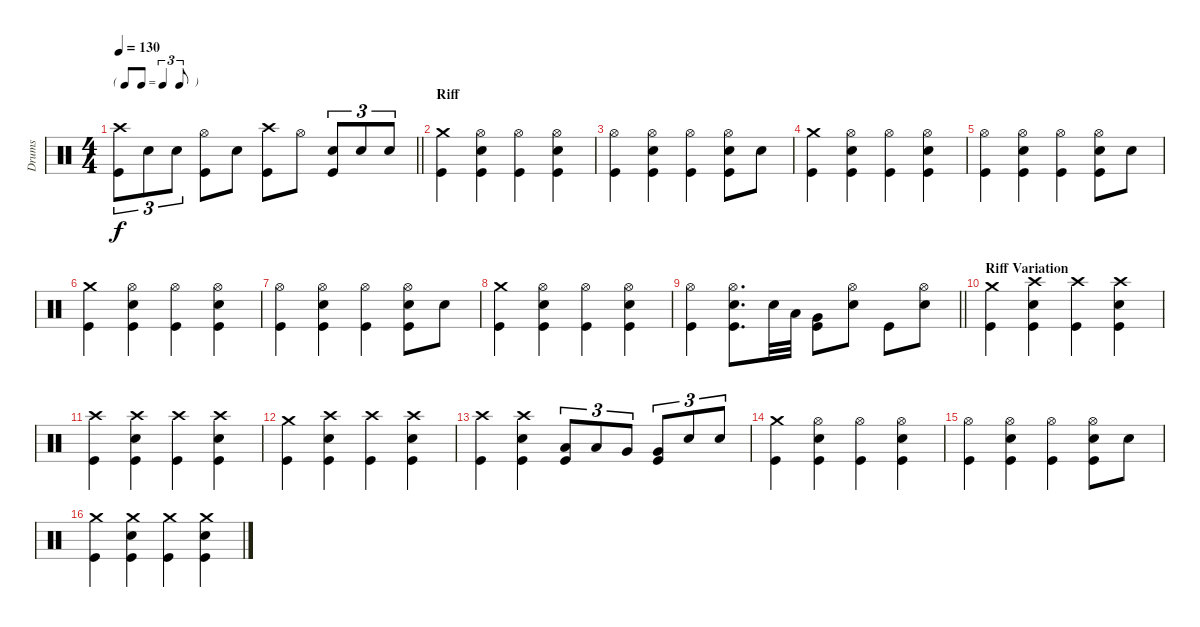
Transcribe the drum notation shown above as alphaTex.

\track ("Drums" "Drums") {instrument percussion}
\staff {score}
\articulation defaults
\ts (4 4)
\tf triplet8th
\tempo 130
\clef neutral
\barLineRight lightlight
\ks c
("Crash high (hit)" "Kick (hit)").8{tu (3 2) dy f} "Snare (hit) 2".8{tu (3 2)} "Snare (hit) 2".8{tu (3 2)} ("Kick (hit)" "Hi-Hat (open)").8 "Snare (hit) 2".8 ("Crash high (hit)" "Kick (hit)").8 "Hi-Hat (open)".8 ("Kick (hit)" "Snare (hit) 2").8{tu (3 2)} "Snare (hit) 2".8{tu (3 2)} "Snare (hit) 2".8{tu (3 2)} |
\section ("" "Riff")
("Crash medium (hit)" "Kick (hit)").4 ("Hi-Hat (open)" "Snare (hit) 2" "Kick (hit)").4 ("Hi-Hat (open)" "Kick (hit)").4 ("Hi-Hat (open)" "Snare (hit) 2" "Kick (hit)").4 |
("Hi-Hat (open)" "Kick (hit)").4 ("Hi-Hat (open)" "Snare (hit) 2" "Kick (hit)").4 ("Hi-Hat (open)" "Kick (hit)").4 ("Hi-Hat (open)" "Snare (hit) 2" "Kick (hit)").8 "Snare (hit) 2".8 |
("Crash medium (hit)" "Kick (hit)").4 ("Hi-Hat (open)" "Snare (hit) 2" "Kick (hit)").4 ("Hi-Hat (open)" "Kick (hit)").4 ("Hi-Hat (open)" "Snare (hit) 2" "Kick (hit)").4 |
("Hi-Hat (open)" "Kick (hit)").4 ("Hi-Hat (open)" "Snare (hit) 2" "Kick (hit)").4 ("Hi-Hat (open)" "Kick (hit)").4 ("Hi-Hat (open)" "Snare (hit) 2" "Kick (hit)").8 "Snare (hit) 2".8 |
("Crash medium (hit)" "Kick (hit)").4 ("Hi-Hat (open)" "Snare (hit) 2" "Kick (hit)").4 ("Hi-Hat (open)" "Kick (hit)").4 ("Hi-Hat (open)" "Snare (hit) 2" "Kick (hit)").4 |
("Hi-Hat (open)" "Kick (hit)").4 ("Hi-Hat (open)" "Snare (hit) 2" "Kick (hit)").4 ("Hi-Hat (open)" "Kick (hit)").4 ("Hi-Hat (open)" "Snare (hit) 2" "Kick (hit)").8 "Snare (hit) 2".8 |
("Crash medium (hit)" "Kick (hit)").4 ("Hi-Hat (open)" "Snare (hit) 2" "Kick (hit)").4 ("Hi-Hat (open)" "Kick (hit)").4 ("Hi-Hat (open)" "Snare (hit) 2" "Kick (hit)").4 |
\barLineRight lightlight
("Hi-Hat (open)" "Kick (hit)").4 ("Hi-Hat (open)" "Snare (hit) 2" "Kick (hit)").8{d} "Snare (hit) 2".32 "Low Tom (hit)".32 ("Very Low Tom (hit)" "Kick (hit)").8 ("Hi-Hat (open)" "Snare (hit) 2").8 "Kick (hit)".8 ("Snare (hit) 2" "Hi-Hat (open)").8 |
\section ("" "Riff Variation")
("Crash medium (hit)" "Kick (hit)").4 ("Crash high (hit)" "Kick (hit)" "Snare (hit) 2").4 ("Crash high (hit)" "Kick (hit)").4 ("Crash high (hit)" "Kick (hit)" "Snare (hit) 2").4 |
("Crash high (hit)" "Kick (hit)").4 ("Crash high (hit)" "Kick (hit)" "Snare (hit) 2").4 ("Crash high (hit)" "Kick (hit)").4 ("Crash high (hit)" "Kick (hit)" "Snare (hit) 2").4 |
("Crash medium (hit)" "Kick (hit)").4 ("Crash high (hit)" "Kick (hit)" "Snare (hit) 2").4 ("Crash high (hit)" "Kick (hit)").4 ("Crash high (hit)" "Kick (hit)" "Snare (hit) 2").4 |
("Crash high (hit)" "Kick (hit)").4 ("Crash high (hit)" "Kick (hit)" "Snare (hit) 2").4 ("Kick (hit)" "Low Tom (hit)").8{tu (3 2)} "Low Tom (hit)".8{tu (3 2)} "Very Low Tom (hit)".8{tu (3 2)} ("Kick (hit)" "Very Low Tom (hit)").8{tu (3 2)} "Snare (hit) 2".8{tu (3 2)} "Snare (hit) 2".8{tu (3 2)} |
("Crash medium (hit)" "Kick (hit)").4 ("Kick (hit)" "Snare (hit) 2" "Hi-Hat (open)").4 ("Kick (hit)" "Hi-Hat (open)").4 ("Kick (hit)" "Hi-Hat (open)" "Snare (hit) 2").4 |
("Kick (hit)" "Hi-Hat (open)").4 ("Kick (hit)" "Hi-Hat (open)" "Snare (hit) 2").4 ("Kick (hit)" "Hi-Hat (open)").4 ("Kick (hit)" "Hi-Hat (open)" "Snare (hit) 2").8 "Snare (hit) 2".8 |
("Crash medium (hit)" "Kick (hit)").4 ("Crash medium (hit)" "Kick (hit)" "Snare (hit) 2").4 ("Crash medium (hit)" "Kick (hit)").4 ("Crash medium (hit)" "Kick (hit)" "Snare (hit) 2").4
